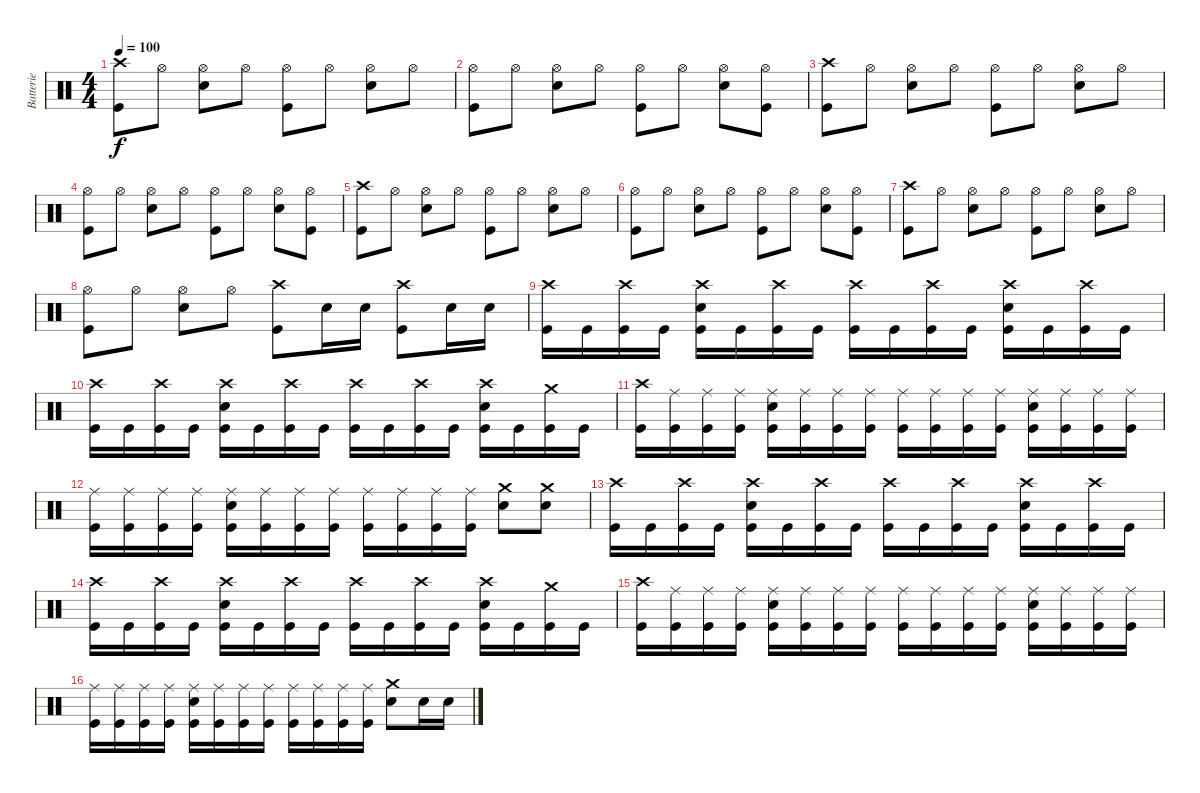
\track ("Batterie" "Batterie") {instrument percussion}
\staff {score}
\articulation defaults
\ts (4 4)
\tempo 100
\clef neutral
\ks c
("Crash high (hit)" "Kick (hit)").8{dy f} "Hi-Hat (open)".8 ("Hi-Hat (open)" "Electric Snare (hit)").8 "Hi-Hat (open)".8 ("Hi-Hat (open)" "Kick (hit)").8 "Hi-Hat (open)".8 ("Hi-Hat (open)" "Electric Snare (hit)").8 "Hi-Hat (open)".8 |
("Hi-Hat (open)" "Kick (hit)").8 "Hi-Hat (open)".8 ("Hi-Hat (open)" "Electric Snare (hit)").8 "Hi-Hat (open)".8 ("Hi-Hat (open)" "Kick (hit)").8 "Hi-Hat (open)".8 ("Hi-Hat (open)" "Electric Snare (hit)").8 ("Hi-Hat (open)" "Kick (hit)").8 |
("Crash high (hit)" "Kick (hit)").8 "Hi-Hat (open)".8 ("Hi-Hat (open)" "Electric Snare (hit)").8 "Hi-Hat (open)".8 ("Hi-Hat (open)" "Kick (hit)").8 "Hi-Hat (open)".8 ("Hi-Hat (open)" "Electric Snare (hit)").8 "Hi-Hat (open)".8 |
("Hi-Hat (open)" "Kick (hit)").8 "Hi-Hat (open)".8 ("Hi-Hat (open)" "Electric Snare (hit)").8 "Hi-Hat (open)".8 ("Hi-Hat (open)" "Kick (hit)").8 "Hi-Hat (open)".8 ("Hi-Hat (open)" "Electric Snare (hit)").8 ("Hi-Hat (open)" "Kick (hit)").8 |
("Crash high (hit)" "Kick (hit)").8 "Hi-Hat (open)".8 ("Hi-Hat (open)" "Electric Snare (hit)").8 "Hi-Hat (open)".8 ("Hi-Hat (open)" "Kick (hit)").8 "Hi-Hat (open)".8 ("Hi-Hat (open)" "Electric Snare (hit)").8 "Hi-Hat (open)".8 |
("Hi-Hat (open)" "Kick (hit)").8 "Hi-Hat (open)".8 ("Hi-Hat (open)" "Electric Snare (hit)").8 "Hi-Hat (open)".8 ("Hi-Hat (open)" "Kick (hit)").8 "Hi-Hat (open)".8 ("Hi-Hat (open)" "Electric Snare (hit)").8 ("Hi-Hat (open)" "Kick (hit)").8 |
("Crash high (hit)" "Kick (hit)").8 "Hi-Hat (open)".8 ("Hi-Hat (open)" "Electric Snare (hit)").8 "Hi-Hat (open)".8 ("Hi-Hat (open)" "Kick (hit)").8 "Hi-Hat (open)".8 ("Hi-Hat (open)" "Electric Snare (hit)").8 "Hi-Hat (open)".8 |
("Hi-Hat (open)" "Kick (hit)").8 "Hi-Hat (open)".8 ("Hi-Hat (open)" "Electric Snare (hit)").8 "Hi-Hat (open)".8 ("Crash high (hit)" "Kick (hit)").8 "Electric Snare (hit)".16 "Electric Snare (hit)".16 ("Crash high (hit)" "Kick (hit)").8 "Electric Snare (hit)".16 "Electric Snare (hit)".16 |
("Crash high (hit)" "Kick (hit)").16 "Kick (hit)".16 ("Crash high (hit)" "Kick (hit)").16 "Kick (hit)".16 ("Crash high (hit)" "Electric Snare (hit)" "Kick (hit)").16 "Kick (hit)".16 ("Crash high (hit)" "Kick (hit)").16 "Kick (hit)".16 ("Crash high (hit)" "Kick (hit)").16 "Kick (hit)".16 ("Crash high (hit)" "Kick (hit)").16 "Kick (hit)".16 ("Crash high (hit)" "Electric Snare (hit)" "Kick (hit)").16 "Kick (hit)".16 ("Crash high (hit)" "Kick (hit)").16 "Kick (hit)".16 |
("Crash high (hit)" "Kick (hit)").16 "Kick (hit)".16 ("Crash high (hit)" "Kick (hit)").16 "Kick (hit)".16 ("Crash high (hit)" "Electric Snare (hit)" "Kick (hit)").16 "Kick (hit)".16 ("Crash high (hit)" "Kick (hit)").16 "Kick (hit)".16 ("Crash high (hit)" "Kick (hit)").16 "Kick (hit)".16 ("Crash high (hit)" "Kick (hit)").16 "Kick (hit)".16 ("Crash high (hit)" "Electric Snare (hit)" "Kick (hit)").16 "Kick (hit)".16 ("Crash medium (hit)" "Kick (hit)").16 "Kick (hit)".16 |
("Crash high (hit)" "Kick (hit)").16 ("Ride (middle)" "Kick (hit)").16 ("Ride (middle)" "Kick (hit)").16 ("Ride (middle)" "Kick (hit)").16 ("Ride (middle)" "Electric Snare (hit)" "Kick (hit)").16 ("Ride (middle)" "Kick (hit)").16 ("Ride (middle)" "Kick (hit)").16 ("Ride (middle)" "Kick (hit)").16 ("Ride (middle)" "Kick (hit)").16 ("Ride (middle)" "Kick (hit)").16 ("Ride (middle)" "Kick (hit)").16 ("Ride (middle)" "Kick (hit)").16 ("Ride (middle)" "Electric Snare (hit)" "Kick (hit)").16 ("Ride (middle)" "Kick (hit)").16 ("Ride (middle)" "Kick (hit)").16 ("Ride (middle)" "Kick (hit)").16 |
("Ride (middle)" "Kick (hit)").16 ("Ride (middle)" "Kick (hit)").16 ("Ride (middle)" "Kick (hit)").16 ("Ride (middle)" "Kick (hit)").16 ("Ride (middle)" "Electric Snare (hit)" "Kick (hit)").16 ("Ride (middle)" "Kick (hit)").16 ("Ride (middle)" "Kick (hit)").16 ("Ride (middle)" "Kick (hit)").16 ("Ride (middle)" "Kick (hit)").16 ("Ride (middle)" "Kick (hit)").16 ("Ride (middle)" "Kick (hit)").16 ("Ride (middle)" "Kick (hit)").16 ("Crash medium (hit)" "Electric Snare (hit)").8 ("Crash medium (hit)" "Electric Snare (hit)").8 |
("Crash high (hit)" "Kick (hit)").16 "Kick (hit)".16 ("Crash high (hit)" "Kick (hit)").16 "Kick (hit)".16 ("Crash high (hit)" "Electric Snare (hit)" "Kick (hit)").16 "Kick (hit)".16 ("Crash high (hit)" "Kick (hit)").16 "Kick (hit)".16 ("Crash high (hit)" "Kick (hit)").16 "Kick (hit)".16 ("Crash high (hit)" "Kick (hit)").16 "Kick (hit)".16 ("Crash high (hit)" "Electric Snare (hit)" "Kick (hit)").16 "Kick (hit)".16 ("Crash high (hit)" "Kick (hit)").16 "Kick (hit)".16 |
("Crash high (hit)" "Kick (hit)").16 "Kick (hit)".16 ("Crash high (hit)" "Kick (hit)").16 "Kick (hit)".16 ("Crash high (hit)" "Electric Snare (hit)" "Kick (hit)").16 "Kick (hit)".16 ("Crash high (hit)" "Kick (hit)").16 "Kick (hit)".16 ("Crash high (hit)" "Kick (hit)").16 "Kick (hit)".16 ("Crash high (hit)" "Kick (hit)").16 "Kick (hit)".16 ("Crash high (hit)" "Electric Snare (hit)" "Kick (hit)").16 "Kick (hit)".16 ("Crash medium (hit)" "Kick (hit)").16 "Kick (hit)".16 |
("Crash high (hit)" "Kick (hit)").16 ("Ride (middle)" "Kick (hit)").16 ("Ride (middle)" "Kick (hit)").16 ("Ride (middle)" "Kick (hit)").16 ("Ride (middle)" "Electric Snare (hit)" "Kick (hit)").16 ("Ride (middle)" "Kick (hit)").16 ("Ride (middle)" "Kick (hit)").16 ("Ride (middle)" "Kick (hit)").16 ("Ride (middle)" "Kick (hit)").16 ("Ride (middle)" "Kick (hit)").16 ("Ride (middle)" "Kick (hit)").16 ("Ride (middle)" "Kick (hit)").16 ("Ride (middle)" "Electric Snare (hit)" "Kick (hit)").16 ("Ride (middle)" "Kick (hit)").16 ("Ride (middle)" "Kick (hit)").16 ("Ride (middle)" "Kick (hit)").16 |
("Ride (middle)" "Kick (hit)").16 ("Ride (middle)" "Kick (hit)").16 ("Ride (middle)" "Kick (hit)").16 ("Ride (middle)" "Kick (hit)").16 ("Ride (middle)" "Electric Snare (hit)" "Kick (hit)").16 ("Ride (middle)" "Kick (hit)").16 ("Ride (middle)" "Kick (hit)").16 ("Ride (middle)" "Kick (hit)").16 ("Ride (middle)" "Kick (hit)").16 ("Ride (middle)" "Kick (hit)").16 ("Ride (middle)" "Kick (hit)").16 ("Ride (middle)" "Kick (hit)").16 ("Crash medium (hit)" "Electric Snare (hit)").8 "Electric Snare (hit)".16 "Electric Snare (hit)".16
